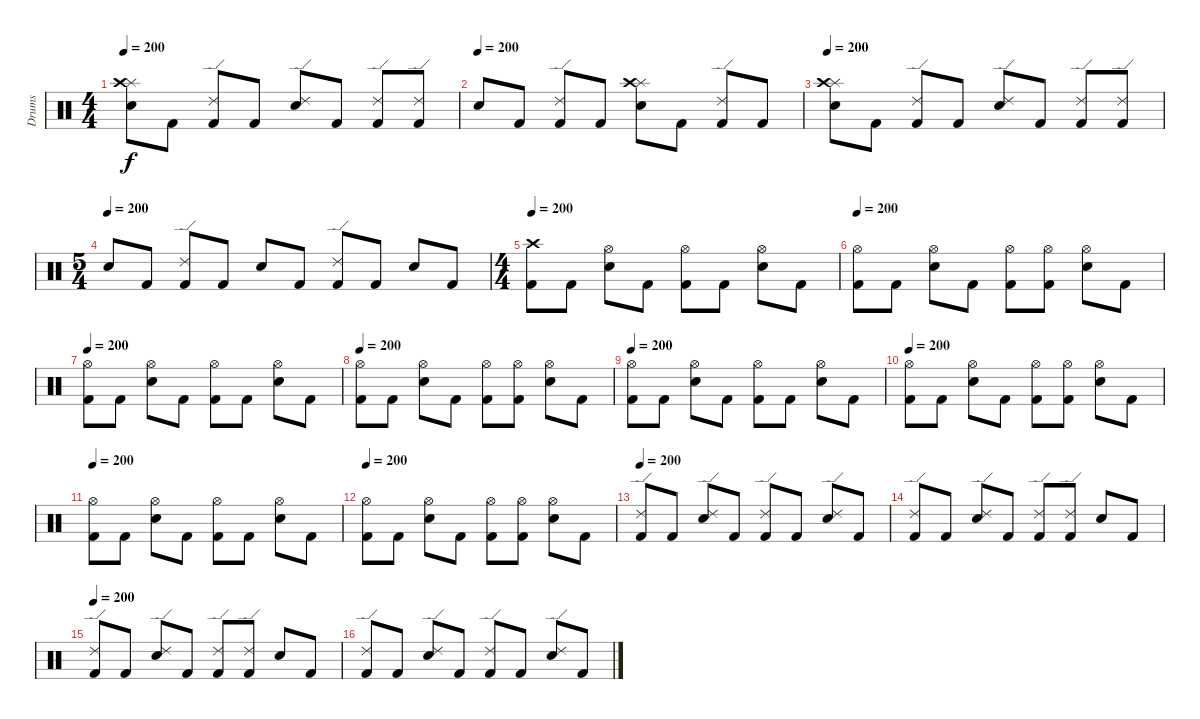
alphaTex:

\track ("Drums" "Drums") {instrument percussion}
\staff {score}
\articulation defaults
\ts (4 4)
\tempo 200
\clef neutral
\ks c
("Electric Snare (hit)" "Splash (hit)" "Crash high (hit)").8{dy f} "Kick (hit) 2".8 ("Kick (hit) 2" "Ride (edge) 2").8 "Kick (hit) 2".8 ("Electric Snare (hit)" "Ride (edge) 2").8 "Kick (hit) 2".8 ("Kick (hit) 2" "Ride (edge) 2").8 ("Kick (hit) 2" "Ride (edge) 2").8 |
\tempo (200)
"Electric Snare (hit)".8 "Kick (hit) 2".8 ("Kick (hit) 2" "Ride (edge) 2").8 "Kick (hit) 2".8 ("Electric Snare (hit)" "Splash (hit)" "Crash high (hit)").8 "Kick (hit) 2".8 ("Kick (hit) 2" "Ride (edge) 2").8 "Kick (hit) 2".8 |
\tempo 200
("Electric Snare (hit)" "Splash (hit)" "Crash high (hit)").8 "Kick (hit) 2".8 ("Kick (hit) 2" "Ride (edge) 2").8 "Kick (hit) 2".8 ("Electric Snare (hit)" "Ride (edge) 2").8 "Kick (hit) 2".8 ("Kick (hit) 2" "Ride (edge) 2").8 ("Kick (hit) 2" "Ride (edge) 2").8 |
\ts (5 4)
\tempo (200)
"Electric Snare (hit)".8 "Kick (hit) 2".8 ("Kick (hit) 2" "Ride (edge) 2").8 "Kick (hit) 2".8 "Electric Snare (hit)".8 "Kick (hit) 2".8 ("Kick (hit) 2" "Ride (edge) 2").8 "Kick (hit) 2".8 "Electric Snare (hit)".8 "Kick (hit) 2".8 |
\ts (4 4)
\tempo 200
("Kick (hit) 2" "Crash high (hit)").8 "Kick (hit) 2".8 ("Electric Snare (hit)" "Hi-Hat (open)").8 "Kick (hit) 2".8 ("Kick (hit) 2" "Hi-Hat (open)").8 "Kick (hit) 2".8 ("Electric Snare (hit)" "Hi-Hat (open)").8 "Kick (hit) 2".8 |
\tempo 200
("Kick (hit) 2" "Hi-Hat (open)").8 "Kick (hit) 2".8 ("Electric Snare (hit)" "Hi-Hat (open)").8 "Kick (hit) 2".8 ("Kick (hit) 2" "Hi-Hat (open)").8 ("Kick (hit) 2" "Hi-Hat (open)").8 ("Electric Snare (hit)" "Hi-Hat (open)").8 "Kick (hit) 2".8 |
\tempo 200
("Kick (hit) 2" "Hi-Hat (open)").8 "Kick (hit) 2".8 ("Electric Snare (hit)" "Hi-Hat (open)").8 "Kick (hit) 2".8 ("Kick (hit) 2" "Hi-Hat (open)").8 "Kick (hit) 2".8 ("Electric Snare (hit)" "Hi-Hat (open)").8 "Kick (hit) 2".8 |
\tempo 200
("Kick (hit) 2" "Hi-Hat (open)").8 "Kick (hit) 2".8 ("Electric Snare (hit)" "Hi-Hat (open)").8 "Kick (hit) 2".8 ("Kick (hit) 2" "Hi-Hat (open)").8 ("Kick (hit) 2" "Hi-Hat (open)").8 ("Electric Snare (hit)" "Hi-Hat (open)").8 "Kick (hit) 2".8 |
\tempo 200
("Kick (hit) 2" "Hi-Hat (open)").8 "Kick (hit) 2".8 ("Electric Snare (hit)" "Hi-Hat (open)").8 "Kick (hit) 2".8 ("Kick (hit) 2" "Hi-Hat (open)").8 "Kick (hit) 2".8 ("Electric Snare (hit)" "Hi-Hat (open)").8 "Kick (hit) 2".8 |
\tempo 200
("Kick (hit) 2" "Hi-Hat (open)").8 "Kick (hit) 2".8 ("Electric Snare (hit)" "Hi-Hat (open)").8 "Kick (hit) 2".8 ("Kick (hit) 2" "Hi-Hat (open)").8 ("Kick (hit) 2" "Hi-Hat (open)").8 ("Electric Snare (hit)" "Hi-Hat (open)").8 "Kick (hit) 2".8 |
\tempo 200
("Kick (hit) 2" "Hi-Hat (open)").8 "Kick (hit) 2".8 ("Electric Snare (hit)" "Hi-Hat (open)").8 "Kick (hit) 2".8 ("Kick (hit) 2" "Hi-Hat (open)").8 "Kick (hit) 2".8 ("Electric Snare (hit)" "Hi-Hat (open)").8 "Kick (hit) 2".8 |
\tempo 200
("Kick (hit) 2" "Hi-Hat (open)").8 "Kick (hit) 2".8 ("Electric Snare (hit)" "Hi-Hat (open)").8 "Kick (hit) 2".8 ("Kick (hit) 2" "Hi-Hat (open)").8 ("Kick (hit) 2" "Hi-Hat (open)").8 ("Electric Snare (hit)" "Hi-Hat (open)").8 "Kick (hit) 2".8 |
\tempo 200
("Kick (hit) 2" "Ride (edge) 2").8 "Kick (hit) 2".8 ("Electric Snare (hit)" "Ride (edge) 2").8 "Kick (hit) 2".8 ("Kick (hit) 2" "Ride (edge) 2").8 "Kick (hit) 2".8 ("Electric Snare (hit)" "Ride (edge) 2").8 "Kick (hit) 2".8 |
("Kick (hit) 2" "Ride (edge) 2").8 "Kick (hit) 2".8 ("Electric Snare (hit)" "Ride (edge) 2").8 "Kick (hit) 2".8 ("Kick (hit) 2" "Ride (edge) 2").8 ("Kick (hit) 2" "Ride (edge) 2").8 "Electric Snare (hit)".8 "Kick (hit) 2".8 |
\tempo 200
("Kick (hit) 2" "Ride (edge) 2").8 "Kick (hit) 2".8 ("Electric Snare (hit)" "Ride (edge) 2").8 "Kick (hit) 2".8 ("Kick (hit) 2" "Ride (edge) 2").8 ("Kick (hit) 2" "Ride (edge) 2").8 "Electric Snare (hit)".8 "Kick (hit) 2".8 |
("Kick (hit) 2" "Ride (edge) 2").8 "Kick (hit) 2".8 ("Electric Snare (hit)" "Ride (edge) 2").8 "Kick (hit) 2".8 ("Kick (hit) 2" "Ride (edge) 2").8 "Kick (hit) 2".8 ("Electric Snare (hit)" "Ride (edge) 2").8 "Kick (hit) 2".8
